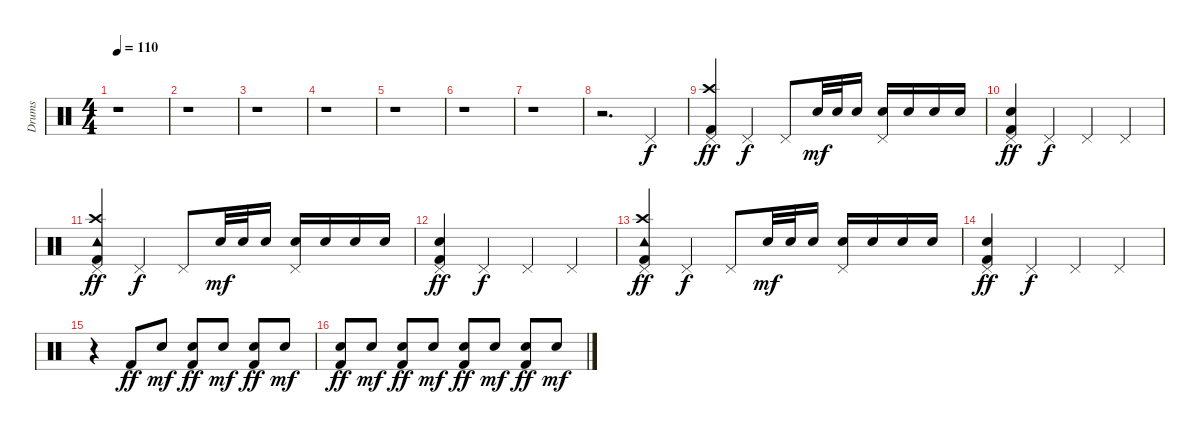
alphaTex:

\track ("Drums" "Drums") {instrument percussion}
\staff {score}
\articulation defaults
\ts (4 4)
\tempo 110
\clef neutral
\ks c
r.1{dy f} |
r.1 |
r.1 |
r.1 |
r.1 |
r.1 |
r.1 |
r.2{d} "Pedal Hi-Hat (hit)".4 |
("Crash high (hit)" "Pedal Hi-Hat (hit)" "Kick (hit) 2").4{dy ff} "Pedal Hi-Hat (hit)".4{dy f} "Pedal Hi-Hat (hit)".8 "Snare (hit) 2".32{dy mf} "Snare (hit) 2".32 "Snare (hit) 2".16 ("Pedal Hi-Hat (hit)" "Snare (hit) 2").16 "Snare (hit) 2".16 "Snare (hit) 2".16 "Snare (hit) 2".16 |
("Snare (hit) 2" "Kick (hit) 2" "Pedal Hi-Hat (hit)").4{dy ff} "Pedal Hi-Hat (hit)".4{dy f} "Pedal Hi-Hat (hit)".4 "Pedal Hi-Hat (hit)".4 |
("Crash high (hit)" "Tambourine (hit)" "Pedal Hi-Hat (hit)" "Kick (hit) 2").4{dy ff} "Pedal Hi-Hat (hit)".4{dy f} "Pedal Hi-Hat (hit)".8 "Snare (hit) 2".32{dy mf} "Snare (hit) 2".32 "Snare (hit) 2".16 ("Pedal Hi-Hat (hit)" "Snare (hit) 2").16 "Snare (hit) 2".16 "Snare (hit) 2".16 "Snare (hit) 2".16 |
("Snare (hit) 2" "Kick (hit) 2" "Pedal Hi-Hat (hit)").4{dy ff} "Pedal Hi-Hat (hit)".4{dy f} "Pedal Hi-Hat (hit)".4 "Pedal Hi-Hat (hit)".4 |
("Crash high (hit)" "Tambourine (hit)" "Pedal Hi-Hat (hit)" "Kick (hit) 2").4{dy ff} "Pedal Hi-Hat (hit)".4{dy f} "Pedal Hi-Hat (hit)".8 "Snare (hit) 2".32{dy mf} "Snare (hit) 2".32 "Snare (hit) 2".16 ("Pedal Hi-Hat (hit)" "Snare (hit) 2").16 "Snare (hit) 2".16 "Snare (hit) 2".16 "Snare (hit) 2".16 |
("Snare (hit) 2" "Kick (hit) 2" "Pedal Hi-Hat (hit)").4{dy ff} "Pedal Hi-Hat (hit)".4{dy f} "Pedal Hi-Hat (hit)".4 "Pedal Hi-Hat (hit)".4 |
r.4 "Kick (hit) 2".8{dy ff} "Snare (hit) 2".8{dy mf} ("Snare (hit) 2" "Kick (hit) 2").8{dy ff} "Snare (hit) 2".8{dy mf} ("Snare (hit) 2" "Kick (hit) 2").8{dy ff} "Snare (hit) 2".8{dy mf} |
("Snare (hit) 2" "Kick (hit) 2").8{dy ff} "Snare (hit) 2".8{dy mf} ("Snare (hit) 2" "Kick (hit) 2").8{dy ff} "Snare (hit) 2".8{dy mf} ("Snare (hit) 2" "Kick (hit) 2").8{dy ff} "Snare (hit) 2".8{dy mf} ("Snare (hit) 2" "Kick (hit) 2").8{dy ff} "Snare (hit) 2".8{dy mf}
